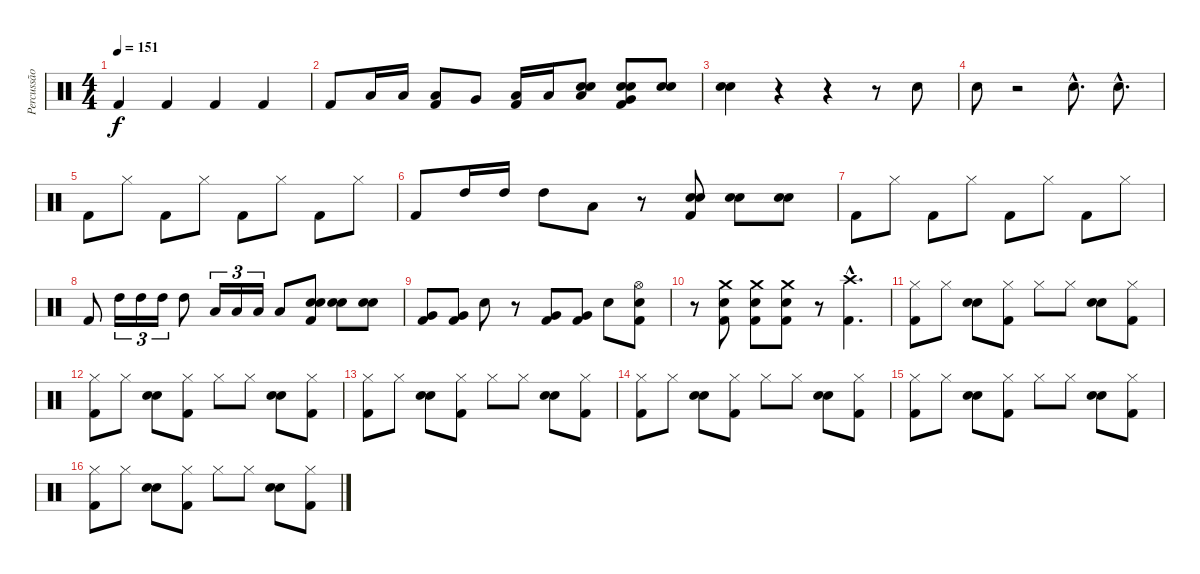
\track ("Percussão" "Percussão") {instrument percussion}
\staff {score}
\articulation defaults
\ts (4 4)
\tempo 151
\clef neutral
\ks c "Kick (hit) 2".4{dy f} "Kick (hit) 2".4 "Kick (hit) 2".4 "Kick (hit) 2".4
|
"Kick (hit) 2".8 "Low Tom (hit)".16 "Low Tom (hit)".16 ("Kick (hit) 2" "Low Tom (hit)").8 "Very Low Tom (hit)".8 ("Kick (hit) 2" "Low Tom (hit)").16 "Low Tom (hit)".16 ("Low Tom (hit)" "Snare (hit) 2" "Hand Clap (hit)").8 ("Kick (hit) 2" "Very Low Tom (hit)" "Snare (hit) 2" "Hand Clap (hit)").8 ("Snare (hit) 2" "Hand Clap (hit)").8 |
("Snare (hit) 2" "Hand Clap (hit)").4 r.4 r.4 r.8 "Snare (hit) 2".8 |
"Snare (hit) 2".8 r.2 "Snare (hit) 2"{hac}.8{d} "Snare (hit) 2"{hac}.8{d} |
"Kick (hit) 2".8 "Hi-Hat (closed)".8 "Kick (hit) 2".8 "Hi-Hat (closed)".8 "Kick (hit) 2".8 "Hi-Hat (closed)".8 "Kick (hit) 2".8 "Hi-Hat (closed)".8 |
"Kick (hit) 2".8 "High Tom (hit)".16 "High Tom (hit)".16 "High Tom (hit)".8 "Low Tom (hit)".8 r.8 ("Kick (hit) 2" "Snare (hit) 2" "Hand Clap (hit)").8 ("Snare (hit) 2" "Hand Clap (hit)").8 ("Snare (hit) 2" "Hand Clap (hit)").8 |
"Kick (hit) 2".8 "Hi-Hat (closed)".8 "Kick (hit) 2".8 "Hi-Hat (closed)".8 "Kick (hit) 2".8 "Hi-Hat (closed)".8 "Kick (hit) 2".8 "Hi-Hat (closed)".8 |
"Kick (hit) 2".8 "High Tom (hit)".16{tu (3 2)} "High Tom (hit)".16{tu (3 2)} "High Tom (hit)".16{tu (3 2)} "High Tom (hit)".8 "Low Tom (hit)".16{tu (3 2)} "Low Tom (hit)".16{tu (3 2)} "Low Tom (hit)".16{tu (3 2)} "Low Tom (hit)".8 ("Kick (hit) 2" "Snare (hit) 2" "Hand Clap (hit)").8 ("Snare (hit) 2" "Hand Clap (hit)").8 ("Snare (hit) 2" "Hand Clap (hit)").8 |
("Kick (hit) 2" "Very Low Tom (hit)").8 ("Kick (hit) 2" "Very Low Tom (hit)").8 "Hand Clap (hit)".8 r.8 ("Kick (hit) 2" "Very Low Tom (hit)").8 ("Kick (hit) 2" "Very Low Tom (hit)").8 "Hand Clap (hit)".8 ("Kick (hit) 2" "Snare (hit) 2" "Hi-Hat (open)").8 |
r.8 ("Kick (hit) 2" "Snare (hit) 2" "Crash medium (hit)").8 ("Kick (hit) 2" "Snare (hit) 2" "Crash medium (hit)").8 ("Kick (hit) 2" "Snare (hit) 2" "Crash medium (hit)").8 r.8 ("Kick (hit) 2"{hac} "Crash high (hit)"{hac}).4{d} |
("Kick (hit) 2" "Hi-Hat (closed)").8 "Hi-Hat (closed)".8 ("Snare (hit) 2" "Hand Clap (hit)").8 ("Kick (hit) 2" "Hi-Hat (closed)").8 "Hi-Hat (closed)".8 "Hi-Hat (closed)".8 ("Snare (hit) 2" "Hand Clap (hit)").8 ("Kick (hit) 2" "Hi-Hat (closed)").8 |
("Kick (hit) 2" "Hi-Hat (closed)").8 "Hi-Hat (closed)".8 ("Snare (hit) 2" "Hand Clap (hit)").8 ("Kick (hit) 2" "Hi-Hat (closed)").8 "Hi-Hat (closed)".8 "Hi-Hat (closed)".8 ("Snare (hit) 2" "Hand Clap (hit)").8 ("Kick (hit) 2" "Hi-Hat (closed)").8 |
("Kick (hit) 2" "Hi-Hat (closed)").8 "Hi-Hat (closed)".8 ("Snare (hit) 2" "Hand Clap (hit)").8 ("Kick (hit) 2" "Hi-Hat (closed)").8 "Hi-Hat (closed)".8 "Hi-Hat (closed)".8 ("Snare (hit) 2" "Hand Clap (hit)").8 ("Kick (hit) 2" "Hi-Hat (closed)").8 |
("Kick (hit) 2" "Hi-Hat (closed)").8 "Hi-Hat (closed)".8 ("Snare (hit) 2" "Hand Clap (hit)").8 ("Kick (hit) 2" "Hi-Hat (closed)").8 "Hi-Hat (closed)".8 "Hi-Hat (closed)".8 ("Snare (hit) 2" "Hand Clap (hit)").8 ("Kick (hit) 2" "Hi-Hat (closed)").8 |
("Kick (hit) 2" "Hi-Hat (closed)").8 "Hi-Hat (closed)".8 ("Snare (hit) 2" "Hand Clap (hit)").8 ("Kick (hit) 2" "Hi-Hat (closed)").8 "Hi-Hat (closed)".8 "Hi-Hat (closed)".8 ("Snare (hit) 2" "Hand Clap (hit)").8 ("Kick (hit) 2" "Hi-Hat (closed)").8 |
("Kick (hit) 2" "Hi-Hat (closed)").8 "Hi-Hat (closed)".8 ("Snare (hit) 2" "Hand Clap (hit)").8 ("Kick (hit) 2" "Hi-Hat (closed)").8 "Hi-Hat (closed)".8 "Hi-Hat (closed)".8 ("Snare (hit) 2" "Hand Clap (hit)").8 ("Kick (hit) 2" "Hi-Hat (closed)").8
